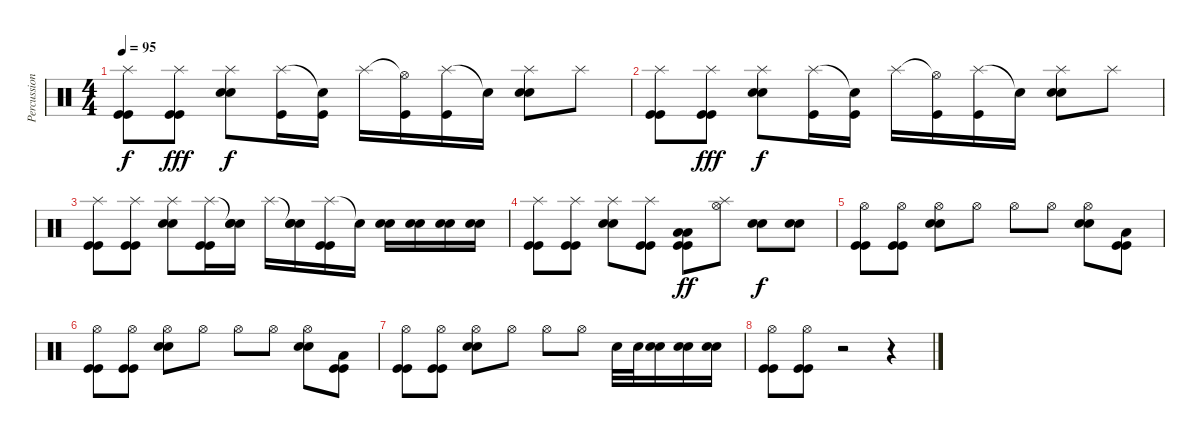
\track ("Percussions" "Percussion") {instrument percussion}
\staff {score}
\articulation defaults
\ts (4 4)
\tempo 95
\clef neutral
\ks c
("Splash (hit)" "Kick (hit)" "Kick (hit)").8{dy f} ("Splash (hit)" "Kick (hit)" "Kick (hit)").8{dy fff} ("Splash (hit)" "Electric Snare (hit)" "Electric Snare (hit)").8{dy f} ("Splash (hit)" "Kick (hit)").16 ("Snare (hit)"{t} "Kick (hit)").16 "Splash (hit)".16 ("Hi-Hat (open)"{t} "Kick (hit)").16 ("Splash (hit)" "Kick (hit)").16 "Snare (hit)"{t}.16 ("Splash (hit)" "Electric Snare (hit)" "Electric Snare (hit)").8 "Splash (hit)".8 |
("Splash (hit)" "Kick (hit)" "Kick (hit)").8 ("Splash (hit)" "Kick (hit)" "Kick (hit)").8{dy fff} ("Splash (hit)" "Electric Snare (hit)" "Electric Snare (hit)").8{dy f} ("Splash (hit)" "Kick (hit)").16 ("Snare (hit)"{t} "Kick (hit)").16 "Splash (hit)".16 ("Hi-Hat (open)"{t} "Kick (hit)").16 ("Splash (hit)" "Kick (hit)").16 "Snare (hit)"{t}.16 ("Splash (hit)" "Electric Snare (hit)" "Electric Snare (hit)").8 "Splash (hit)".8 |
("Splash (hit)" "Kick (hit)" "Kick (hit)").8 ("Splash (hit)" "Kick (hit)" "Kick (hit)").8 ("Splash (hit)" "Electric Snare (hit)" "Electric Snare (hit)").8 ("Splash (hit)" "Kick (hit)" "Kick (hit)").16 ("Snare (hit)"{t} "Electric Snare (hit)" "Electric Snare (hit)").16 "Splash (hit)".16 ("Snare (hit)"{t} "Electric Snare (hit)" "Electric Snare (hit)").16 ("Splash (hit)" "Kick (hit)" "Kick (hit)").16 "Snare (hit)"{t}.16 ("Electric Snare (hit)" "Electric Snare (hit)").16 ("Electric Snare (hit)" "Electric Snare (hit)").16 ("Electric Snare (hit)" "Electric Snare (hit)").16 ("Electric Snare (hit)" "Electric Snare (hit)").16 |
("Splash (hit)" "Kick (hit)" "Kick (hit)").8 ("Splash (hit)" "Kick (hit)" "Kick (hit)").8 ("Splash (hit)" "Electric Snare (hit)" "Electric Snare (hit)").8 ("Splash (hit)" "Kick (hit)" "Kick (hit)").8 ("Low Floor Tom (hit)" "Low Floor Tom (hit)" "Kick (hit)" "Kick (hit)").8{dy ff} ("Splash (hit)" "Hi-Hat (open)").8 ("Electric Snare (hit)" "Electric Snare (hit)").8{dy f} ("Electric Snare (hit)" "Electric Snare (hit)").8 |
("Hi-Hat (open)" "Kick (hit)" "Kick (hit)").8 ("Hi-Hat (open)" "Kick (hit)" "Kick (hit)").8 ("Hi-Hat (open)" "Electric Snare (hit)" "Electric Snare (hit)").8 "Hi-Hat (open)".8 "Hi-Hat (open)".8 "Hi-Hat (open)".8 ("Hi-Hat (open)" "Electric Snare (hit)" "Electric Snare (hit)").8 ("Low Floor Tom (hit)" "Kick (hit)" "Kick (hit)").8 |
("Hi-Hat (open)" "Kick (hit)" "Kick (hit)").8 ("Hi-Hat (open)" "Kick (hit)" "Kick (hit)").8 ("Hi-Hat (open)" "Electric Snare (hit)" "Electric Snare (hit)").8 "Hi-Hat (open)".8 "Hi-Hat (open)".8 "Hi-Hat (open)".8 ("Hi-Hat (open)" "Electric Snare (hit)" "Electric Snare (hit)").8 ("Low Floor Tom (hit)" "Kick (hit)" "Kick (hit)").8 |
("Hi-Hat (open)" "Kick (hit)" "Kick (hit)").8 ("Hi-Hat (open)" "Kick (hit)" "Kick (hit)").8 ("Hi-Hat (open)" "Electric Snare (hit)" "Electric Snare (hit)").8 "Hi-Hat (open)".8 "Hi-Hat (open)".8 "Hi-Hat (open)".8 "Electric Snare (hit)".32 "Electric Snare (hit)".32 ("Electric Snare (hit)" "Electric Snare (hit)").16 ("Electric Snare (hit)" "Electric Snare (hit)").16 ("Electric Snare (hit)" "Electric Snare (hit)").16 |
("Hi-Hat (open)" "Kick (hit)" "Kick (hit)").8 ("Hi-Hat (open)" "Kick (hit)" "Kick (hit)").8 r.2 r.4
